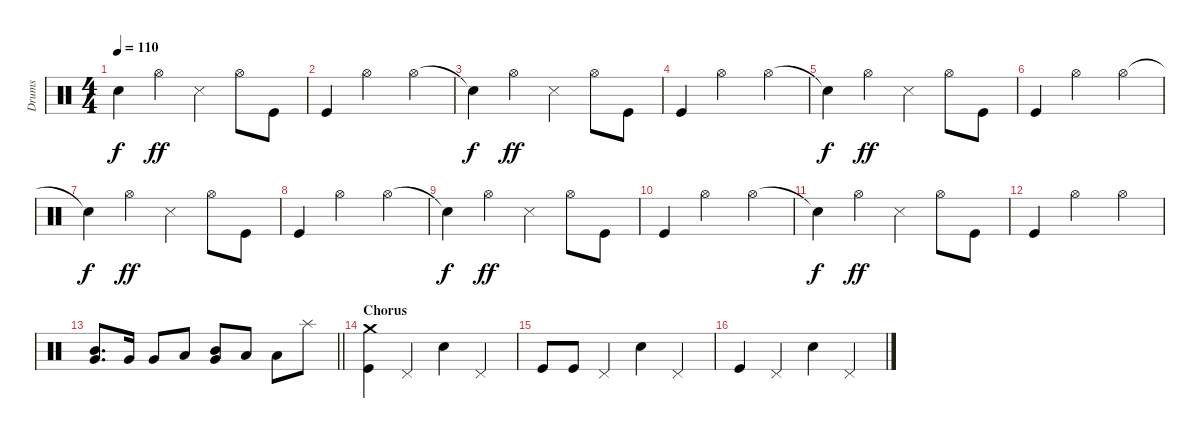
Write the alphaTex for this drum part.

\track ("Drums" "Drums") {instrument percussion}
\staff {score}
\articulation defaults
\ts (4 4)
\tempo 110
\clef neutral
\ks c "Snare (hit)"{t}.4{dy f} "Hi-Hat (open)".4{dy ff} "Snare (side stick) 3".4 "Hi-Hat (open)".8 "Kick (hit)".8
|
"Kick (hit)".4 "Hi-Hat (open)".2 "Hi-Hat (open)".4 |
"Snare (hit)"{t}.4{dy f} "Hi-Hat (open)".4{dy ff} "Snare (side stick) 3".4 "Hi-Hat (open)".8 "Kick (hit)".8 |
"Kick (hit)".4 "Hi-Hat (open)".2 "Hi-Hat (open)".4 |
"Snare (hit)"{t}.4{dy f} "Hi-Hat (open)".4{dy ff} "Snare (side stick) 3".4 "Hi-Hat (open)".8 "Kick (hit)".8 |
"Kick (hit)".4 "Hi-Hat (open)".2 "Hi-Hat (open)".4 |
"Snare (hit)"{t}.4{dy f} "Hi-Hat (open)".4{dy ff} "Snare (side stick) 3".4 "Hi-Hat (open)".8 "Kick (hit)".8 |
"Kick (hit)".4 "Hi-Hat (open)".2 "Hi-Hat (open)".4 |
"Snare (hit)"{t}.4{dy f} "Hi-Hat (open)".4{dy ff} "Snare (side stick) 3".4 "Hi-Hat (open)".8 "Kick (hit)".8 |
"Kick (hit)".4 "Hi-Hat (open)".2 "Hi-Hat (open)".4 |
"Snare (hit)"{t}.4{dy f} "Hi-Hat (open)".4{dy ff} "Snare (side stick) 3".4 "Hi-Hat (open)".8 "Kick (hit)".8 |
"Kick (hit)".4 "Hi-Hat (open)".2 "Hi-Hat (open)".4 |
\barLineRight lightlight
("Very Low Tom (hit)" "Mid Tom (hit)").8{d} "Very Low Tom (hit)".16 "Very Low Tom (hit)".8 "Low Floor Tom (hit)".8 ("Very Low Tom (hit)" "Mid Tom (hit)").8 "Low Floor Tom (hit)".8 "Low Floor Tom (hit)".8 "Splash (hit)".8 |
\section ("" "Chorus")
("Kick (hit)" "Crash medium (hit)").4 "Pedal Hi-Hat (hit)".4 "Electric Snare (hit)".4 "Pedal Hi-Hat (hit)".4 |
"Kick (hit)".8 "Kick (hit)".8 "Pedal Hi-Hat (hit)".4 "Electric Snare (hit)".4 "Pedal Hi-Hat (hit)".4 |
"Kick (hit)".4 "Pedal Hi-Hat (hit)".4 "Electric Snare (hit)".4 "Pedal Hi-Hat (hit)".4
